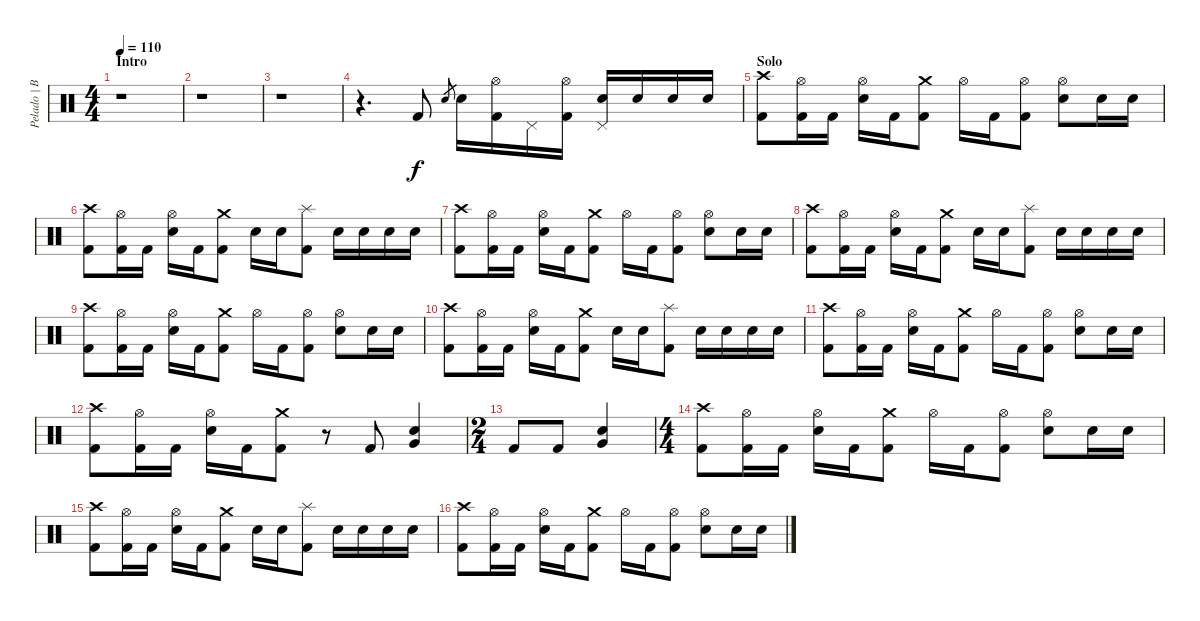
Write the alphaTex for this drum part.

\track ("Pelado | Bateria" "Pelado | B") {instrument percussion}
\staff {score}
\articulation defaults
\ts (4 4)
\section ("" "Intro")
\tempo 110
\clef neutral
\ks c
r.1{dy f} |
r.1 |
r.1 |
r.4{d} "Kick (hit) 2".8 "Snare (hit) 2".8{gr} "Snare (hit) 2".16 ("Hi-Hat (open)" "Kick (hit) 2").16 "Pedal Hi-Hat (hit)".16 ("Hi-Hat (open)" "Kick (hit) 2").16 ("Snare (hit) 2" "Pedal Hi-Hat (hit)").16 "Snare (hit) 2".16 "Snare (hit) 2".16 "Snare (hit) 2".16 |
\section ("" "Solo")
("Crash high (hit)" "Kick (hit) 2").8 ("Hi-Hat (open)" "Kick (hit) 2").16 "Kick (hit) 2".16 ("Hi-Hat (open)" "Snare (hit) 2").16 "Kick (hit) 2".16 ("Crash medium (hit)" "Kick (hit) 2").8 "Hi-Hat (open)".16 "Kick (hit) 2".16 ("Hi-Hat (open)" "Kick (hit) 2").8 ("Hi-Hat (open)" "Snare (hit) 2").8 "Snare (hit) 2".16 "Snare (hit) 2".16 |
("Crash high (hit)" "Kick (hit) 2").8 ("Hi-Hat (open)" "Kick (hit) 2").16 "Kick (hit) 2".16 ("Hi-Hat (open)" "Snare (hit) 2").16 "Kick (hit) 2".16 ("Crash medium (hit)" "Kick (hit) 2").8 "Snare (hit) 2".16 "Snare (hit) 2".16 ("Splash (hit)" "Kick (hit) 2").8 "Snare (hit) 2".16 "Snare (hit) 2".16 "Snare (hit) 2".16 "Snare (hit) 2".16 |
("Crash high (hit)" "Kick (hit) 2").8 ("Hi-Hat (open)" "Kick (hit) 2").16 "Kick (hit) 2".16 ("Hi-Hat (open)" "Snare (hit) 2").16 "Kick (hit) 2".16 ("Crash medium (hit)" "Kick (hit) 2").8 "Hi-Hat (open)".16 "Kick (hit) 2".16 ("Hi-Hat (open)" "Kick (hit) 2").8 ("Hi-Hat (open)" "Snare (hit) 2").8 "Snare (hit) 2".16 "Snare (hit) 2".16 |
("Crash high (hit)" "Kick (hit) 2").8 ("Hi-Hat (open)" "Kick (hit) 2").16 "Kick (hit) 2".16 ("Hi-Hat (open)" "Snare (hit) 2").16 "Kick (hit) 2".16 ("Crash medium (hit)" "Kick (hit) 2").8 "Snare (hit) 2".16 "Snare (hit) 2".16 ("Splash (hit)" "Kick (hit) 2").8 "Snare (hit) 2".16 "Snare (hit) 2".16 "Snare (hit) 2".16 "Snare (hit) 2".16 |
("Crash high (hit)" "Kick (hit) 2").8 ("Hi-Hat (open)" "Kick (hit) 2").16 "Kick (hit) 2".16 ("Hi-Hat (open)" "Snare (hit) 2").16 "Kick (hit) 2".16 ("Crash medium (hit)" "Kick (hit) 2").8 "Hi-Hat (open)".16 "Kick (hit) 2".16 ("Hi-Hat (open)" "Kick (hit) 2").8 ("Hi-Hat (open)" "Snare (hit) 2").8 "Snare (hit) 2".16 "Snare (hit) 2".16 |
("Crash high (hit)" "Kick (hit) 2").8 ("Hi-Hat (open)" "Kick (hit) 2").16 "Kick (hit) 2".16 ("Hi-Hat (open)" "Snare (hit) 2").16 "Kick (hit) 2".16 ("Crash medium (hit)" "Kick (hit) 2").8 "Snare (hit) 2".16 "Snare (hit) 2".16 ("Splash (hit)" "Kick (hit) 2").8 "Snare (hit) 2".16 "Snare (hit) 2".16 "Snare (hit) 2".16 "Snare (hit) 2".16 |
("Crash high (hit)" "Kick (hit) 2").8 ("Hi-Hat (open)" "Kick (hit) 2").16 "Kick (hit) 2".16 ("Hi-Hat (open)" "Snare (hit) 2").16 "Kick (hit) 2".16 ("Crash medium (hit)" "Kick (hit) 2").8 "Hi-Hat (open)".16 "Kick (hit) 2".16 ("Hi-Hat (open)" "Kick (hit) 2").8 ("Hi-Hat (open)" "Snare (hit) 2").8 "Snare (hit) 2".16 "Snare (hit) 2".16 |
("Crash high (hit)" "Kick (hit) 2").8 ("Hi-Hat (open)" "Kick (hit) 2").16 "Kick (hit) 2".16 ("Hi-Hat (open)" "Snare (hit) 2").16 "Kick (hit) 2".16 ("Crash medium (hit)" "Kick (hit) 2").8 r.8 "Kick (hit) 2".8 ("Very Low Tom (hit)" "Snare (hit) 2").4 |
\ts (2 4)
"Kick (hit) 2".8 "Kick (hit) 2".8 ("Very Low Tom (hit)" "Snare (hit) 2").4 |
\ts (4 4)
("Crash high (hit)" "Kick (hit) 2").8 ("Hi-Hat (open)" "Kick (hit) 2").16 "Kick (hit) 2".16 ("Hi-Hat (open)" "Snare (hit) 2").16 "Kick (hit) 2".16 ("Crash medium (hit)" "Kick (hit) 2").8 "Hi-Hat (open)".16 "Kick (hit) 2".16 ("Hi-Hat (open)" "Kick (hit) 2").8 ("Hi-Hat (open)" "Snare (hit) 2").8 "Snare (hit) 2".16 "Snare (hit) 2".16 |
("Crash high (hit)" "Kick (hit) 2").8 ("Hi-Hat (open)" "Kick (hit) 2").16 "Kick (hit) 2".16 ("Hi-Hat (open)" "Snare (hit) 2").16 "Kick (hit) 2".16 ("Crash medium (hit)" "Kick (hit) 2").8 "Snare (hit) 2".16 "Snare (hit) 2".16 ("Splash (hit)" "Kick (hit) 2").8 "Snare (hit) 2".16 "Snare (hit) 2".16 "Snare (hit) 2".16 "Snare (hit) 2".16 |
("Crash high (hit)" "Kick (hit) 2").8 ("Hi-Hat (open)" "Kick (hit) 2").16 "Kick (hit) 2".16 ("Hi-Hat (open)" "Snare (hit) 2").16 "Kick (hit) 2".16 ("Crash medium (hit)" "Kick (hit) 2").8 "Hi-Hat (open)".16 "Kick (hit) 2".16 ("Hi-Hat (open)" "Kick (hit) 2").8 ("Hi-Hat (open)" "Snare (hit) 2").8 "Snare (hit) 2".16 "Snare (hit) 2".16
